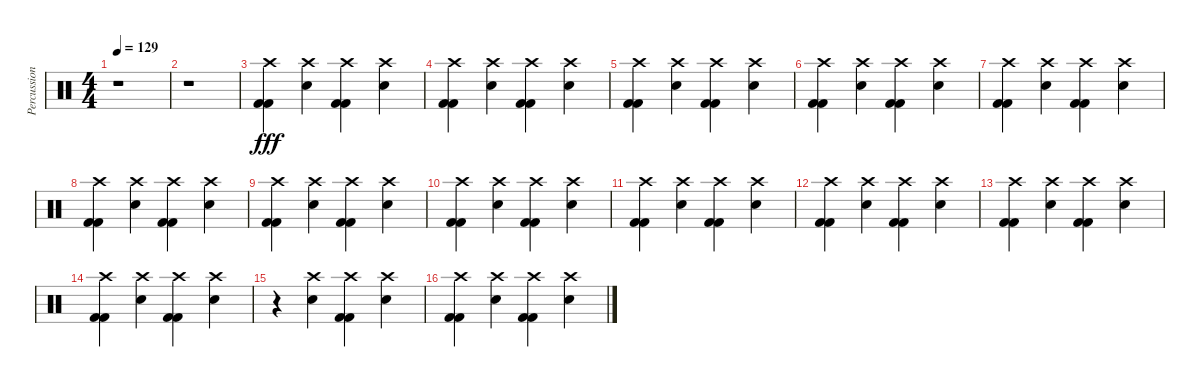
\track ("Percussioni" "Percussion") {instrument percussion}
\staff {score}
\articulation defaults
\ts (4 4)
\tempo 129
\clef neutral
\ks c
r.1{dy fff} |
r.1 |
("Crash high (hit)" "Kick (hit) 2" "Kick (hit) 2").4 ("Crash high (hit)" "Snare (hit) 2").4 ("Crash high (hit)" "Kick (hit) 2" "Kick (hit) 2").4 ("Crash high (hit)" "Snare (hit) 2").4 |
("Crash high (hit)" "Kick (hit) 2" "Kick (hit) 2").4 ("Crash high (hit)" "Snare (hit) 2").4 ("Crash high (hit)" "Kick (hit) 2" "Kick (hit) 2").4 ("Crash high (hit)" "Snare (hit) 2").4 |
("Crash high (hit)" "Kick (hit) 2" "Kick (hit) 2").4 ("Crash high (hit)" "Snare (hit) 2").4 ("Crash high (hit)" "Kick (hit) 2" "Kick (hit) 2").4 ("Crash high (hit)" "Snare (hit) 2").4 |
("Crash high (hit)" "Kick (hit) 2" "Kick (hit) 2").4 ("Crash high (hit)" "Snare (hit) 2").4 ("Crash high (hit)" "Kick (hit) 2" "Kick (hit) 2").4 ("Crash high (hit)" "Snare (hit) 2").4 |
("Crash high (hit)" "Kick (hit) 2" "Kick (hit) 2").4 ("Crash high (hit)" "Snare (hit) 2").4 ("Crash high (hit)" "Kick (hit) 2" "Kick (hit) 2").4 ("Crash high (hit)" "Snare (hit) 2").4 |
("Crash high (hit)" "Kick (hit) 2" "Kick (hit) 2").4 ("Crash high (hit)" "Snare (hit) 2").4 ("Crash high (hit)" "Kick (hit) 2" "Kick (hit) 2").4 ("Crash high (hit)" "Snare (hit) 2").4 |
("Crash high (hit)" "Kick (hit) 2" "Kick (hit) 2").4 ("Crash high (hit)" "Snare (hit) 2").4 ("Crash high (hit)" "Kick (hit) 2" "Kick (hit) 2").4 ("Crash high (hit)" "Snare (hit) 2").4 |
("Crash high (hit)" "Kick (hit) 2" "Kick (hit) 2").4 ("Crash high (hit)" "Snare (hit) 2").4 ("Crash high (hit)" "Kick (hit) 2" "Kick (hit) 2").4 ("Crash high (hit)" "Snare (hit) 2").4 |
("Crash high (hit)" "Kick (hit) 2" "Kick (hit) 2").4 ("Crash high (hit)" "Snare (hit) 2").4 ("Crash high (hit)" "Kick (hit) 2" "Kick (hit) 2").4 ("Crash high (hit)" "Snare (hit) 2").4 |
("Crash high (hit)" "Kick (hit) 2" "Kick (hit) 2").4 ("Crash high (hit)" "Snare (hit) 2").4 ("Crash high (hit)" "Kick (hit) 2" "Kick (hit) 2").4 ("Crash high (hit)" "Snare (hit) 2").4 |
("Crash high (hit)" "Kick (hit) 2" "Kick (hit) 2").4 ("Crash high (hit)" "Snare (hit) 2").4 ("Crash high (hit)" "Kick (hit) 2" "Kick (hit) 2").4 ("Crash high (hit)" "Snare (hit) 2").4 |
("Crash high (hit)" "Kick (hit) 2" "Kick (hit) 2").4 ("Crash high (hit)" "Snare (hit) 2").4 ("Crash high (hit)" "Kick (hit) 2" "Kick (hit) 2").4 ("Crash high (hit)" "Snare (hit) 2").4 |
r.4 ("Crash high (hit)" "Snare (hit) 2").4 ("Crash high (hit)" "Kick (hit) 2" "Kick (hit) 2").4 ("Crash high (hit)" "Snare (hit) 2").4 |
("Crash high (hit)" "Kick (hit) 2" "Kick (hit) 2").4 ("Crash high (hit)" "Snare (hit) 2").4 ("Crash high (hit)" "Kick (hit) 2" "Kick (hit) 2").4 ("Crash high (hit)" "Snare (hit) 2").4
